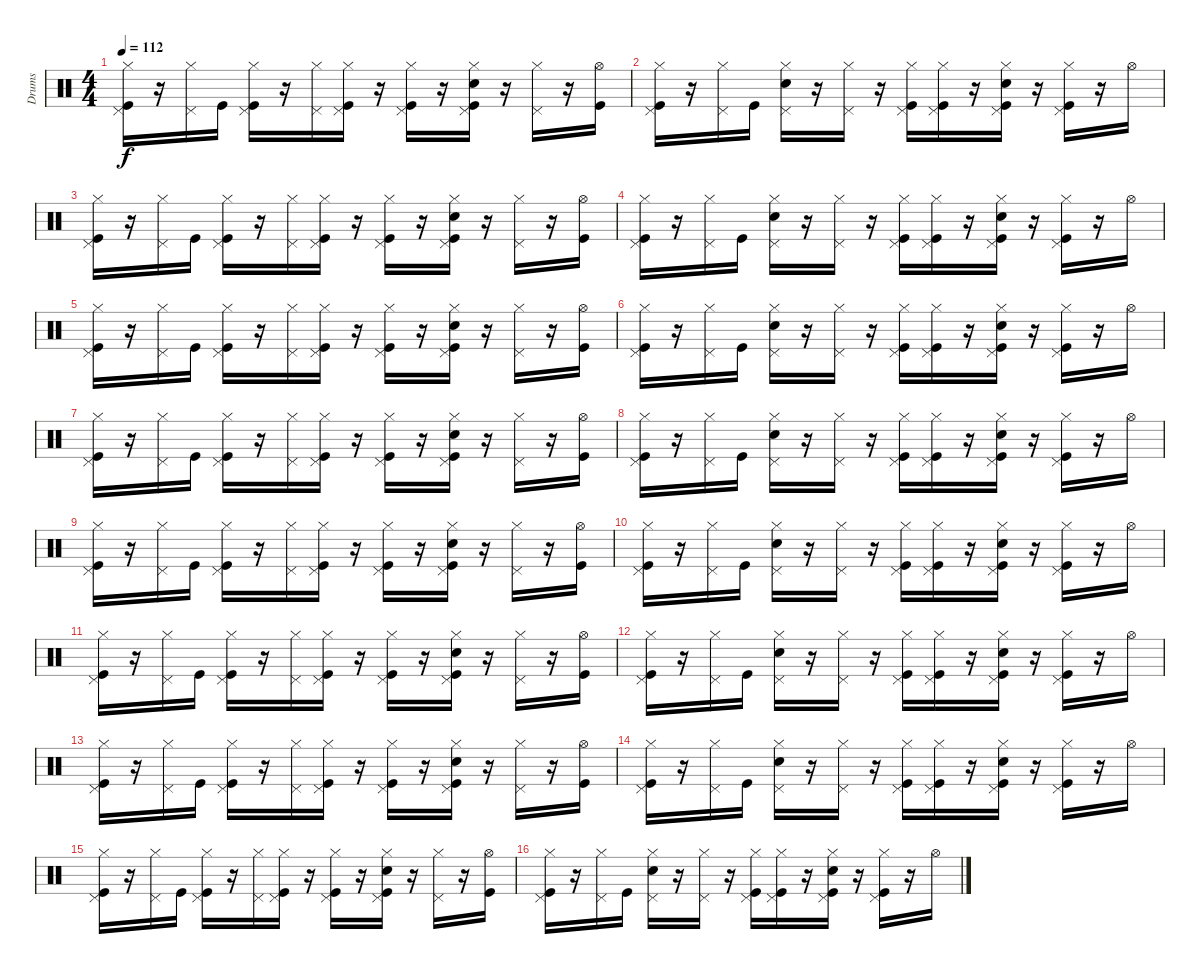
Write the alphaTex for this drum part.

\track ("Drums" "Drums") {instrument percussion}
\staff {score}
\articulation defaults
\ts (4 4)
\tempo 112
\clef neutral
\ks c
("Hi-Hat (closed)" "Pedal Hi-Hat (hit)" "Kick (hit)").16{dy f} r.16 ("Hi-Hat (closed)" "Pedal Hi-Hat (hit)").16 "Kick (hit)".16 ("Hi-Hat (closed)" "Pedal Hi-Hat (hit)" "Kick (hit)").16 r.16 ("Hi-Hat (closed)" "Pedal Hi-Hat (hit)").16 ("Hi-Hat (closed)" "Pedal Hi-Hat (hit)" "Kick (hit)").16 r.16 ("Hi-Hat (closed)" "Pedal Hi-Hat (hit)" "Kick (hit)").16 r.16 ("Hi-Hat (closed)" "Pedal Hi-Hat (hit)" "Kick (hit)" "Snare (hit) 2").16 r.16 ("Hi-Hat (closed)" "Pedal Hi-Hat (hit)").16 r.16 ("Hi-Hat (open)" "Kick (hit)").16 |
("Hi-Hat (closed)" "Pedal Hi-Hat (hit)" "Kick (hit)").16 r.16 ("Hi-Hat (closed)" "Pedal Hi-Hat (hit)").16 "Kick (hit)".16 ("Hi-Hat (closed)" "Pedal Hi-Hat (hit)" "Snare (hit) 2").16 r.16 ("Hi-Hat (closed)" "Pedal Hi-Hat (hit)").16 r.16 ("Pedal Hi-Hat (hit)" "Kick (hit)" "Hi-Hat (closed)").16 ("Hi-Hat (closed)" "Pedal Hi-Hat (hit)" "Kick (hit)").16 r.16 ("Pedal Hi-Hat (hit)" "Kick (hit)" "Snare (hit) 2" "Hi-Hat (closed)").16 r.16 ("Hi-Hat (closed)" "Kick (hit)" "Pedal Hi-Hat (hit)").16 r.16 "Hi-Hat (open)".16 |
("Hi-Hat (closed)" "Pedal Hi-Hat (hit)" "Kick (hit)").16 r.16 ("Hi-Hat (closed)" "Pedal Hi-Hat (hit)").16 "Kick (hit)".16 ("Hi-Hat (closed)" "Pedal Hi-Hat (hit)" "Kick (hit)").16 r.16 ("Hi-Hat (closed)" "Pedal Hi-Hat (hit)").16 ("Hi-Hat (closed)" "Pedal Hi-Hat (hit)" "Kick (hit)").16 r.16 ("Hi-Hat (closed)" "Pedal Hi-Hat (hit)" "Kick (hit)").16 r.16 ("Hi-Hat (closed)" "Pedal Hi-Hat (hit)" "Kick (hit)" "Snare (hit) 2").16 r.16 ("Hi-Hat (closed)" "Pedal Hi-Hat (hit)").16 r.16 ("Hi-Hat (open)" "Kick (hit)").16 |
("Hi-Hat (closed)" "Pedal Hi-Hat (hit)" "Kick (hit)").16 r.16 ("Hi-Hat (closed)" "Pedal Hi-Hat (hit)").16 "Kick (hit)".16 ("Hi-Hat (closed)" "Pedal Hi-Hat (hit)" "Snare (hit) 2").16 r.16 ("Hi-Hat (closed)" "Pedal Hi-Hat (hit)").16 r.16 ("Pedal Hi-Hat (hit)" "Kick (hit)" "Hi-Hat (closed)").16 ("Hi-Hat (closed)" "Pedal Hi-Hat (hit)" "Kick (hit)").16 r.16 ("Pedal Hi-Hat (hit)" "Kick (hit)" "Snare (hit) 2" "Hi-Hat (closed)").16 r.16 ("Hi-Hat (closed)" "Kick (hit)" "Pedal Hi-Hat (hit)").16 r.16 "Hi-Hat (open)".16 |
("Hi-Hat (closed)" "Pedal Hi-Hat (hit)" "Kick (hit)").16 r.16 ("Hi-Hat (closed)" "Pedal Hi-Hat (hit)").16 "Kick (hit)".16 ("Hi-Hat (closed)" "Pedal Hi-Hat (hit)" "Kick (hit)").16 r.16 ("Hi-Hat (closed)" "Pedal Hi-Hat (hit)").16 ("Hi-Hat (closed)" "Pedal Hi-Hat (hit)" "Kick (hit)").16 r.16 ("Hi-Hat (closed)" "Pedal Hi-Hat (hit)" "Kick (hit)").16 r.16 ("Hi-Hat (closed)" "Pedal Hi-Hat (hit)" "Kick (hit)" "Snare (hit) 2").16 r.16 ("Hi-Hat (closed)" "Pedal Hi-Hat (hit)").16 r.16 ("Hi-Hat (open)" "Kick (hit)").16 |
("Hi-Hat (closed)" "Pedal Hi-Hat (hit)" "Kick (hit)").16 r.16 ("Hi-Hat (closed)" "Pedal Hi-Hat (hit)").16 "Kick (hit)".16 ("Hi-Hat (closed)" "Pedal Hi-Hat (hit)" "Snare (hit) 2").16 r.16 ("Hi-Hat (closed)" "Pedal Hi-Hat (hit)").16 r.16 ("Pedal Hi-Hat (hit)" "Kick (hit)" "Hi-Hat (closed)").16 ("Hi-Hat (closed)" "Pedal Hi-Hat (hit)" "Kick (hit)").16 r.16 ("Pedal Hi-Hat (hit)" "Kick (hit)" "Snare (hit) 2" "Hi-Hat (closed)").16 r.16 ("Hi-Hat (closed)" "Kick (hit)" "Pedal Hi-Hat (hit)").16 r.16 "Hi-Hat (open)".16 |
("Hi-Hat (closed)" "Pedal Hi-Hat (hit)" "Kick (hit)").16 r.16 ("Hi-Hat (closed)" "Pedal Hi-Hat (hit)").16 "Kick (hit)".16 ("Hi-Hat (closed)" "Pedal Hi-Hat (hit)" "Kick (hit)").16 r.16 ("Hi-Hat (closed)" "Pedal Hi-Hat (hit)").16 ("Hi-Hat (closed)" "Pedal Hi-Hat (hit)" "Kick (hit)").16 r.16 ("Hi-Hat (closed)" "Pedal Hi-Hat (hit)" "Kick (hit)").16 r.16 ("Hi-Hat (closed)" "Pedal Hi-Hat (hit)" "Kick (hit)" "Snare (hit) 2").16 r.16 ("Hi-Hat (closed)" "Pedal Hi-Hat (hit)").16 r.16 ("Hi-Hat (open)" "Kick (hit)").16 |
("Hi-Hat (closed)" "Pedal Hi-Hat (hit)" "Kick (hit)").16 r.16 ("Hi-Hat (closed)" "Pedal Hi-Hat (hit)").16 "Kick (hit)".16 ("Hi-Hat (closed)" "Pedal Hi-Hat (hit)" "Snare (hit) 2").16 r.16 ("Hi-Hat (closed)" "Pedal Hi-Hat (hit)").16 r.16 ("Pedal Hi-Hat (hit)" "Kick (hit)" "Hi-Hat (closed)").16 ("Hi-Hat (closed)" "Pedal Hi-Hat (hit)" "Kick (hit)").16 r.16 ("Pedal Hi-Hat (hit)" "Kick (hit)" "Snare (hit) 2" "Hi-Hat (closed)").16 r.16 ("Hi-Hat (closed)" "Kick (hit)" "Pedal Hi-Hat (hit)").16 r.16 "Hi-Hat (open)".16 |
("Hi-Hat (closed)" "Pedal Hi-Hat (hit)" "Kick (hit)").16 r.16 ("Hi-Hat (closed)" "Pedal Hi-Hat (hit)").16 "Kick (hit)".16 ("Hi-Hat (closed)" "Pedal Hi-Hat (hit)" "Kick (hit)").16 r.16 ("Hi-Hat (closed)" "Pedal Hi-Hat (hit)").16 ("Hi-Hat (closed)" "Pedal Hi-Hat (hit)" "Kick (hit)").16 r.16 ("Hi-Hat (closed)" "Pedal Hi-Hat (hit)" "Kick (hit)").16 r.16 ("Hi-Hat (closed)" "Pedal Hi-Hat (hit)" "Kick (hit)" "Snare (hit) 2").16 r.16 ("Hi-Hat (closed)" "Pedal Hi-Hat (hit)").16 r.16 ("Hi-Hat (open)" "Kick (hit)").16 |
("Hi-Hat (closed)" "Pedal Hi-Hat (hit)" "Kick (hit)").16 r.16 ("Hi-Hat (closed)" "Pedal Hi-Hat (hit)").16 "Kick (hit)".16 ("Hi-Hat (closed)" "Pedal Hi-Hat (hit)" "Snare (hit) 2").16 r.16 ("Hi-Hat (closed)" "Pedal Hi-Hat (hit)").16 r.16 ("Pedal Hi-Hat (hit)" "Kick (hit)" "Hi-Hat (closed)").16 ("Hi-Hat (closed)" "Pedal Hi-Hat (hit)" "Kick (hit)").16 r.16 ("Pedal Hi-Hat (hit)" "Kick (hit)" "Snare (hit) 2" "Hi-Hat (closed)").16 r.16 ("Hi-Hat (closed)" "Kick (hit)" "Pedal Hi-Hat (hit)").16 r.16 "Hi-Hat (open)".16 |
("Hi-Hat (closed)" "Pedal Hi-Hat (hit)" "Kick (hit)").16 r.16 ("Hi-Hat (closed)" "Pedal Hi-Hat (hit)").16 "Kick (hit)".16 ("Hi-Hat (closed)" "Pedal Hi-Hat (hit)" "Kick (hit)").16 r.16 ("Hi-Hat (closed)" "Pedal Hi-Hat (hit)").16 ("Hi-Hat (closed)" "Pedal Hi-Hat (hit)" "Kick (hit)").16 r.16 ("Hi-Hat (closed)" "Pedal Hi-Hat (hit)" "Kick (hit)").16 r.16 ("Hi-Hat (closed)" "Pedal Hi-Hat (hit)" "Kick (hit)" "Snare (hit) 2").16 r.16 ("Hi-Hat (closed)" "Pedal Hi-Hat (hit)").16 r.16 ("Hi-Hat (open)" "Kick (hit)").16 |
("Hi-Hat (closed)" "Pedal Hi-Hat (hit)" "Kick (hit)").16 r.16 ("Hi-Hat (closed)" "Pedal Hi-Hat (hit)").16 "Kick (hit)".16 ("Hi-Hat (closed)" "Pedal Hi-Hat (hit)" "Snare (hit) 2").16 r.16 ("Hi-Hat (closed)" "Pedal Hi-Hat (hit)").16 r.16 ("Pedal Hi-Hat (hit)" "Kick (hit)" "Hi-Hat (closed)").16 ("Hi-Hat (closed)" "Pedal Hi-Hat (hit)" "Kick (hit)").16 r.16 ("Pedal Hi-Hat (hit)" "Kick (hit)" "Snare (hit) 2" "Hi-Hat (closed)").16 r.16 ("Hi-Hat (closed)" "Kick (hit)" "Pedal Hi-Hat (hit)").16 r.16 "Hi-Hat (open)".16 |
("Hi-Hat (closed)" "Pedal Hi-Hat (hit)" "Kick (hit)").16 r.16 ("Hi-Hat (closed)" "Pedal Hi-Hat (hit)").16 "Kick (hit)".16 ("Hi-Hat (closed)" "Pedal Hi-Hat (hit)" "Kick (hit)").16 r.16 ("Hi-Hat (closed)" "Pedal Hi-Hat (hit)").16 ("Hi-Hat (closed)" "Pedal Hi-Hat (hit)" "Kick (hit)").16 r.16 ("Hi-Hat (closed)" "Pedal Hi-Hat (hit)" "Kick (hit)").16 r.16 ("Hi-Hat (closed)" "Pedal Hi-Hat (hit)" "Kick (hit)" "Snare (hit) 2").16 r.16 ("Hi-Hat (closed)" "Pedal Hi-Hat (hit)").16 r.16 ("Hi-Hat (open)" "Kick (hit)").16 |
("Hi-Hat (closed)" "Pedal Hi-Hat (hit)" "Kick (hit)").16 r.16 ("Hi-Hat (closed)" "Pedal Hi-Hat (hit)").16 "Kick (hit)".16 ("Hi-Hat (closed)" "Pedal Hi-Hat (hit)" "Snare (hit) 2").16 r.16 ("Hi-Hat (closed)" "Pedal Hi-Hat (hit)").16 r.16 ("Pedal Hi-Hat (hit)" "Kick (hit)" "Hi-Hat (closed)").16 ("Hi-Hat (closed)" "Pedal Hi-Hat (hit)" "Kick (hit)").16 r.16 ("Pedal Hi-Hat (hit)" "Kick (hit)" "Snare (hit) 2" "Hi-Hat (closed)").16 r.16 ("Hi-Hat (closed)" "Kick (hit)" "Pedal Hi-Hat (hit)").16 r.16 "Hi-Hat (open)".16 |
("Hi-Hat (closed)" "Pedal Hi-Hat (hit)" "Kick (hit)").16 r.16 ("Hi-Hat (closed)" "Pedal Hi-Hat (hit)").16 "Kick (hit)".16 ("Hi-Hat (closed)" "Pedal Hi-Hat (hit)" "Kick (hit)").16 r.16 ("Hi-Hat (closed)" "Pedal Hi-Hat (hit)").16 ("Hi-Hat (closed)" "Pedal Hi-Hat (hit)" "Kick (hit)").16 r.16 ("Hi-Hat (closed)" "Pedal Hi-Hat (hit)" "Kick (hit)").16 r.16 ("Hi-Hat (closed)" "Pedal Hi-Hat (hit)" "Kick (hit)" "Snare (hit) 2").16 r.16 ("Hi-Hat (closed)" "Pedal Hi-Hat (hit)").16 r.16 ("Hi-Hat (open)" "Kick (hit)").16 |
("Hi-Hat (closed)" "Pedal Hi-Hat (hit)" "Kick (hit)").16 r.16 ("Hi-Hat (closed)" "Pedal Hi-Hat (hit)").16 "Kick (hit)".16 ("Hi-Hat (closed)" "Pedal Hi-Hat (hit)" "Snare (hit) 2").16 r.16 ("Hi-Hat (closed)" "Pedal Hi-Hat (hit)").16 r.16 ("Pedal Hi-Hat (hit)" "Kick (hit)" "Hi-Hat (closed)").16 ("Hi-Hat (closed)" "Pedal Hi-Hat (hit)" "Kick (hit)").16 r.16 ("Pedal Hi-Hat (hit)" "Kick (hit)" "Snare (hit) 2" "Hi-Hat (closed)").16 r.16 ("Hi-Hat (closed)" "Kick (hit)" "Pedal Hi-Hat (hit)").16 r.16 "Hi-Hat (open)".16
